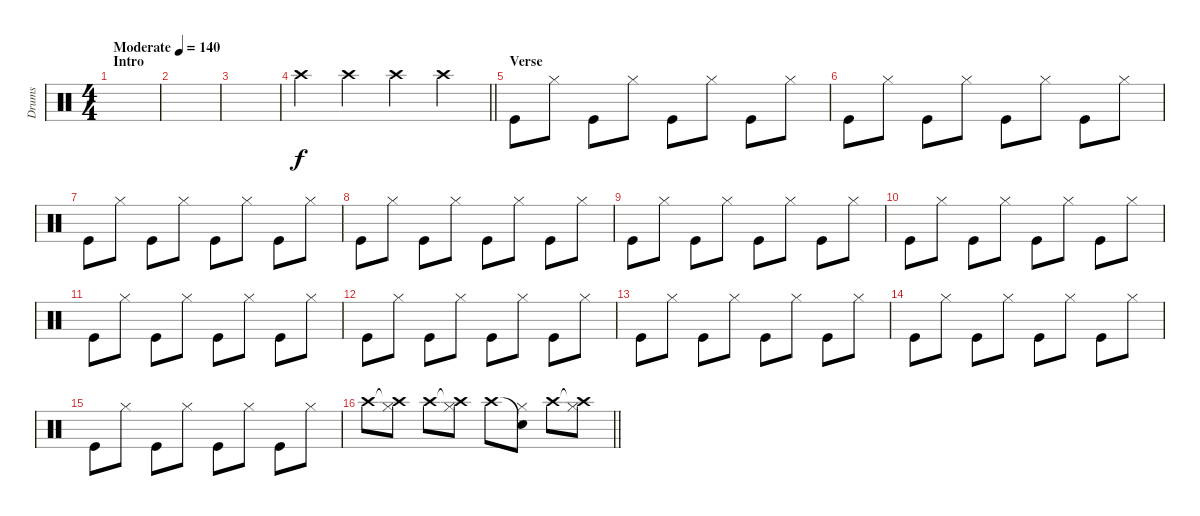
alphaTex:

\track ("Drums" "Drums") {instrument percussion}
\staff {score}
\articulation defaults
\ts (4 4)
\section ("" "Intro")
\tempo (140 "Moderate")
\clef neutral
\ks c
|
|
|
\barLineRight lightlight "Crash high (hit)".4 "Crash high (hit)".4 "Crash high (hit)".4 "Crash high (hit)".4
|
\section ("" "Verse")
"Kick (hit)".8 "Hi-Hat (closed)".8 "Kick (hit)".8 "Hi-Hat (closed)".8 "Kick (hit)".8 "Hi-Hat (closed)".8 "Kick (hit)".8 "Hi-Hat (closed)".8 |
"Kick (hit)".8 "Hi-Hat (closed)".8 "Kick (hit)".8 "Hi-Hat (closed)".8 "Kick (hit)".8 "Hi-Hat (closed)".8 "Kick (hit)".8 "Hi-Hat (closed)".8 |
"Kick (hit)".8 "Hi-Hat (closed)".8 "Kick (hit)".8 "Hi-Hat (closed)".8 "Kick (hit)".8 "Hi-Hat (closed)".8 "Kick (hit)".8 "Hi-Hat (closed)".8 |
"Kick (hit)".8 "Hi-Hat (closed)".8 "Kick (hit)".8 "Hi-Hat (closed)".8 "Kick (hit)".8 "Hi-Hat (closed)".8 "Kick (hit)".8 "Hi-Hat (closed)".8 |
"Kick (hit)".8 "Hi-Hat (closed)".8 "Kick (hit)".8 "Hi-Hat (closed)".8 "Kick (hit)".8 "Hi-Hat (closed)".8 "Kick (hit)".8 "Hi-Hat (closed)".8 |
"Kick (hit)".8 "Hi-Hat (closed)".8 "Kick (hit)".8 "Hi-Hat (closed)".8 "Kick (hit)".8 "Hi-Hat (closed)".8 "Kick (hit)".8 "Hi-Hat (closed)".8 |
"Kick (hit)".8 "Hi-Hat (closed)".8 "Kick (hit)".8 "Hi-Hat (closed)".8 "Kick (hit)".8 "Hi-Hat (closed)".8 "Kick (hit)".8 "Hi-Hat (closed)".8 |
"Kick (hit)".8 "Hi-Hat (closed)".8 "Kick (hit)".8 "Hi-Hat (closed)".8 "Kick (hit)".8 "Hi-Hat (closed)".8 "Kick (hit)".8 "Hi-Hat (closed)".8 |
"Kick (hit)".8 "Hi-Hat (closed)".8 "Kick (hit)".8 "Hi-Hat (closed)".8 "Kick (hit)".8 "Hi-Hat (closed)".8 "Kick (hit)".8 "Hi-Hat (closed)".8 |
"Kick (hit)".8 "Hi-Hat (closed)".8 "Kick (hit)".8 "Hi-Hat (closed)".8 "Kick (hit)".8 "Hi-Hat (closed)".8 "Kick (hit)".8 "Hi-Hat (closed)".8 |
"Kick (hit)".8 "Hi-Hat (closed)".8 "Kick (hit)".8 "Hi-Hat (closed)".8 "Kick (hit)".8 "Hi-Hat (closed)".8 "Kick (hit)".8 "Hi-Hat (closed)".8 |
\barLineRight lightlight "Crash high (hit)".8
("Crash high (hit)"{t} "Hi-Hat (closed)").8 "Crash high (hit)".8 ("Crash high (hit)"{t} "Hi-Hat (closed)").8 "Crash high (hit)".8 ("Snare (hit)"{t} "Hi-Hat (closed)").8 "Crash high (hit)".8 ("Crash high (hit)"{t} "Hi-Hat (closed)").8
